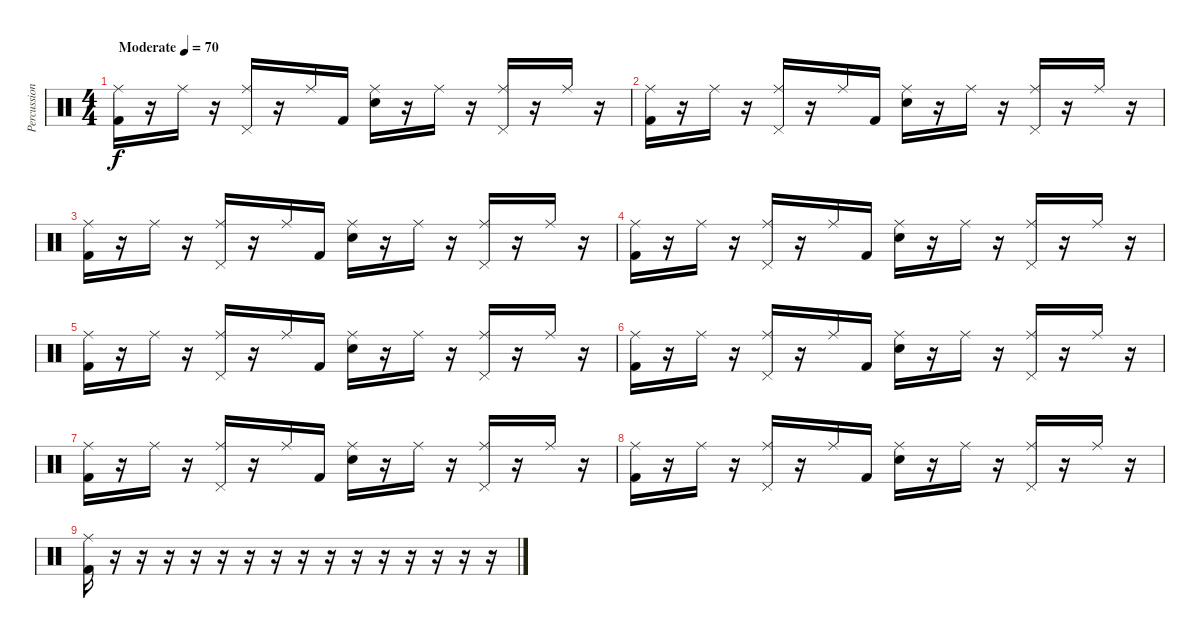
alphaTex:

\track ("Percussion" "Percussion") {instrument percussion}
\staff {score}
\articulation defaults
\ts (4 4)
\tempo (70 "Moderate")
\clef neutral
\ks c
("Ride (middle)" "Kick (hit) 2").16{dy f} r.16 "Ride (middle)".16 r.16 ("Ride (middle)" "Pedal Hi-Hat (hit)").16 r.16 "Ride (middle)".16 "Kick (hit) 2".16 ("Ride (middle)" "Electric Snare (hit)").16 r.16 "Ride (middle)".16 r.16 ("Ride (middle)" "Pedal Hi-Hat (hit)").16 r.16 "Ride (middle)".16 r.16 |
("Ride (middle)" "Kick (hit) 2").16 r.16 "Ride (middle)".16 r.16 ("Ride (middle)" "Pedal Hi-Hat (hit)").16 r.16 "Ride (middle)".16 "Kick (hit) 2".16 ("Ride (middle)" "Electric Snare (hit)").16 r.16 "Ride (middle)".16 r.16 ("Ride (middle)" "Pedal Hi-Hat (hit)").16 r.16 "Ride (middle)".16 r.16 |
("Ride (middle)" "Kick (hit) 2").16 r.16 "Ride (middle)".16 r.16 ("Ride (middle)" "Pedal Hi-Hat (hit)").16 r.16 "Ride (middle)".16 "Kick (hit) 2".16 ("Ride (middle)" "Electric Snare (hit)").16 r.16 "Ride (middle)".16 r.16 ("Ride (middle)" "Pedal Hi-Hat (hit)").16 r.16 "Ride (middle)".16 r.16 |
("Ride (middle)" "Kick (hit) 2").16 r.16 "Ride (middle)".16 r.16 ("Ride (middle)" "Pedal Hi-Hat (hit)").16 r.16 "Ride (middle)".16 "Kick (hit) 2".16 ("Ride (middle)" "Electric Snare (hit)").16 r.16 "Ride (middle)".16 r.16 ("Ride (middle)" "Pedal Hi-Hat (hit)").16 r.16 "Ride (middle)".16 r.16 |
("Ride (middle)" "Kick (hit) 2").16 r.16 "Ride (middle)".16 r.16 ("Ride (middle)" "Pedal Hi-Hat (hit)").16 r.16 "Ride (middle)".16 "Kick (hit) 2".16 ("Ride (middle)" "Electric Snare (hit)").16 r.16 "Ride (middle)".16 r.16 ("Ride (middle)" "Pedal Hi-Hat (hit)").16 r.16 "Ride (middle)".16 r.16 |
("Ride (middle)" "Kick (hit) 2").16 r.16 "Ride (middle)".16 r.16 ("Ride (middle)" "Pedal Hi-Hat (hit)").16 r.16 "Ride (middle)".16 "Kick (hit) 2".16 ("Ride (middle)" "Electric Snare (hit)").16 r.16 "Ride (middle)".16 r.16 ("Ride (middle)" "Pedal Hi-Hat (hit)").16 r.16 "Ride (middle)".16 r.16 |
("Ride (middle)" "Kick (hit) 2").16 r.16 "Ride (middle)".16 r.16 ("Ride (middle)" "Pedal Hi-Hat (hit)").16 r.16 "Ride (middle)".16 "Kick (hit) 2".16 ("Ride (middle)" "Electric Snare (hit)").16 r.16 "Ride (middle)".16 r.16 ("Ride (middle)" "Pedal Hi-Hat (hit)").16 r.16 "Ride (middle)".16 r.16 |
("Ride (middle)" "Kick (hit) 2").16 r.16 "Ride (middle)".16 r.16 ("Ride (middle)" "Pedal Hi-Hat (hit)").16 r.16 "Ride (middle)".16 "Kick (hit) 2".16 ("Ride (middle)" "Electric Snare (hit)").16 r.16 "Ride (middle)".16 r.16 ("Ride (middle)" "Pedal Hi-Hat (hit)").16 r.16 "Ride (middle)".16 r.16 |
("Ride (middle)" "Kick (hit) 2").16 r.16 r.16 r.16 r.16 r.16 r.16 r.16 r.16 r.16 r.16 r.16 r.16 r.16 r.16 r.16
